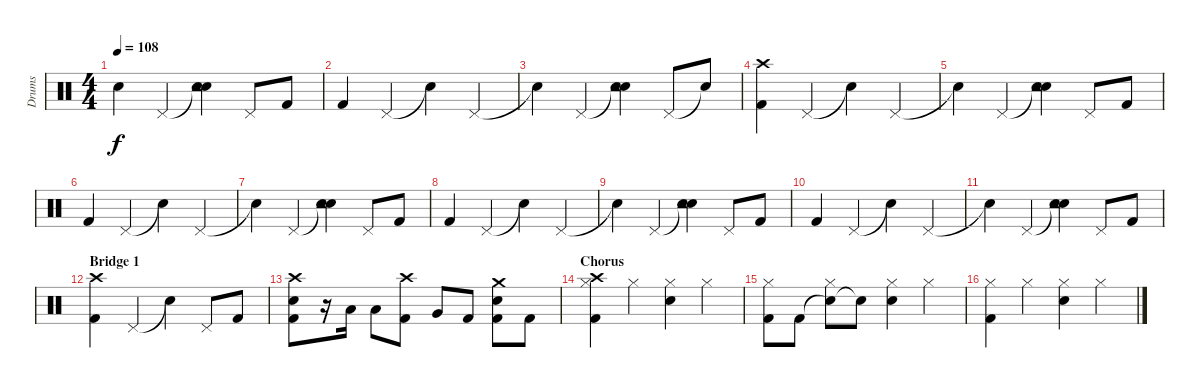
\track ("Drums" "Drums") {instrument percussion}
\staff {score}
\articulation defaults
\ts (4 4)
\tempo 108
\clef neutral
\ks c "Snare (hit)"{t}.4{dy f} "Pedal Hi-Hat (hit)".4
("Snare (hit)"{t} "Electric Snare (hit)" "Tambourine (hit)").4 "Pedal Hi-Hat (hit)".8 "Kick (hit) 2".8 |
"Kick (hit) 2".4 "Pedal Hi-Hat (hit)".4 "Snare (hit)"{t}.4 "Pedal Hi-Hat (hit)".4 |
"Snare (hit)"{t}.4 "Pedal Hi-Hat (hit)".4 ("Snare (hit)"{t} "Electric Snare (hit)" "Tambourine (hit)").4 "Pedal Hi-Hat (hit)".8 "Snare (hit)"{t}.8 |
("Kick (hit) 2" "Crash high (hit)").4 "Pedal Hi-Hat (hit)".4 "Snare (hit)"{t}.4 "Pedal Hi-Hat (hit)".4 |
"Snare (hit)"{t}.4 "Pedal Hi-Hat (hit)".4 ("Snare (hit)"{t} "Electric Snare (hit)" "Tambourine (hit)").4 "Pedal Hi-Hat (hit)".8 "Kick (hit) 2".8 |
"Kick (hit) 2".4 "Pedal Hi-Hat (hit)".4 "Snare (hit)"{t}.4 "Pedal Hi-Hat (hit)".4 |
"Snare (hit)"{t}.4 "Pedal Hi-Hat (hit)".4 ("Snare (hit)"{t} "Electric Snare (hit)" "Tambourine (hit)").4 "Pedal Hi-Hat (hit)".8 "Kick (hit) 2".8 |
"Kick (hit) 2".4 "Pedal Hi-Hat (hit)".4 "Snare (hit)"{t}.4 "Pedal Hi-Hat (hit)".4 |
"Snare (hit)"{t}.4 "Pedal Hi-Hat (hit)".4 ("Snare (hit)"{t} "Electric Snare (hit)" "Tambourine (hit)").4 "Pedal Hi-Hat (hit)".8 "Kick (hit) 2".8 |
"Kick (hit) 2".4 "Pedal Hi-Hat (hit)".4 "Snare (hit)"{t}.4 "Pedal Hi-Hat (hit)".4 |
"Snare (hit)"{t}.4 "Pedal Hi-Hat (hit)".4 ("Snare (hit)"{t} "Electric Snare (hit)" "Tambourine (hit)").4 "Pedal Hi-Hat (hit)".8 "Kick (hit) 2".8 |
\section ("" "Bridge 1")
("Kick (hit) 2" "Crash high (hit)").4 "Pedal Hi-Hat (hit)".4 "Snare (hit)"{t}.4 "Pedal Hi-Hat (hit)".8 "Kick (hit) 2".8 |
("Kick (hit) 2" "Electric Snare (hit)" "Crash high (hit)").8 r.16 "Low Tom (hit)".16 "Low Tom (hit)".8 ("Kick (hit) 2" "Crash high (hit)").8 "Very Low Tom (hit)".8 "Kick (hit) 2".8 ("Kick (hit) 2" "Electric Snare (hit)" "Crash medium (hit)").8 "Kick (hit) 2".8 |
\section ("" "Chorus")
("Kick (hit) 2" "Hi-Hat (closed)" "Crash high (hit)").4 "Hi-Hat (closed)".4 ("Electric Snare (hit)" "Hi-Hat (closed)").4 "Hi-Hat (closed)".4 |
("Kick (hit) 2" "Hi-Hat (closed)").8 "Kick (hit) 2".8 ("Snare (hit)"{t} "Hi-Hat (closed)").8 "Snare (hit)"{t}.8 ("Electric Snare (hit)" "Hi-Hat (closed)").4 "Hi-Hat (closed)".4 |
("Kick (hit) 2" "Hi-Hat (closed)").4 "Hi-Hat (closed)".4 ("Electric Snare (hit)" "Hi-Hat (closed)").4 "Hi-Hat (closed)".4
